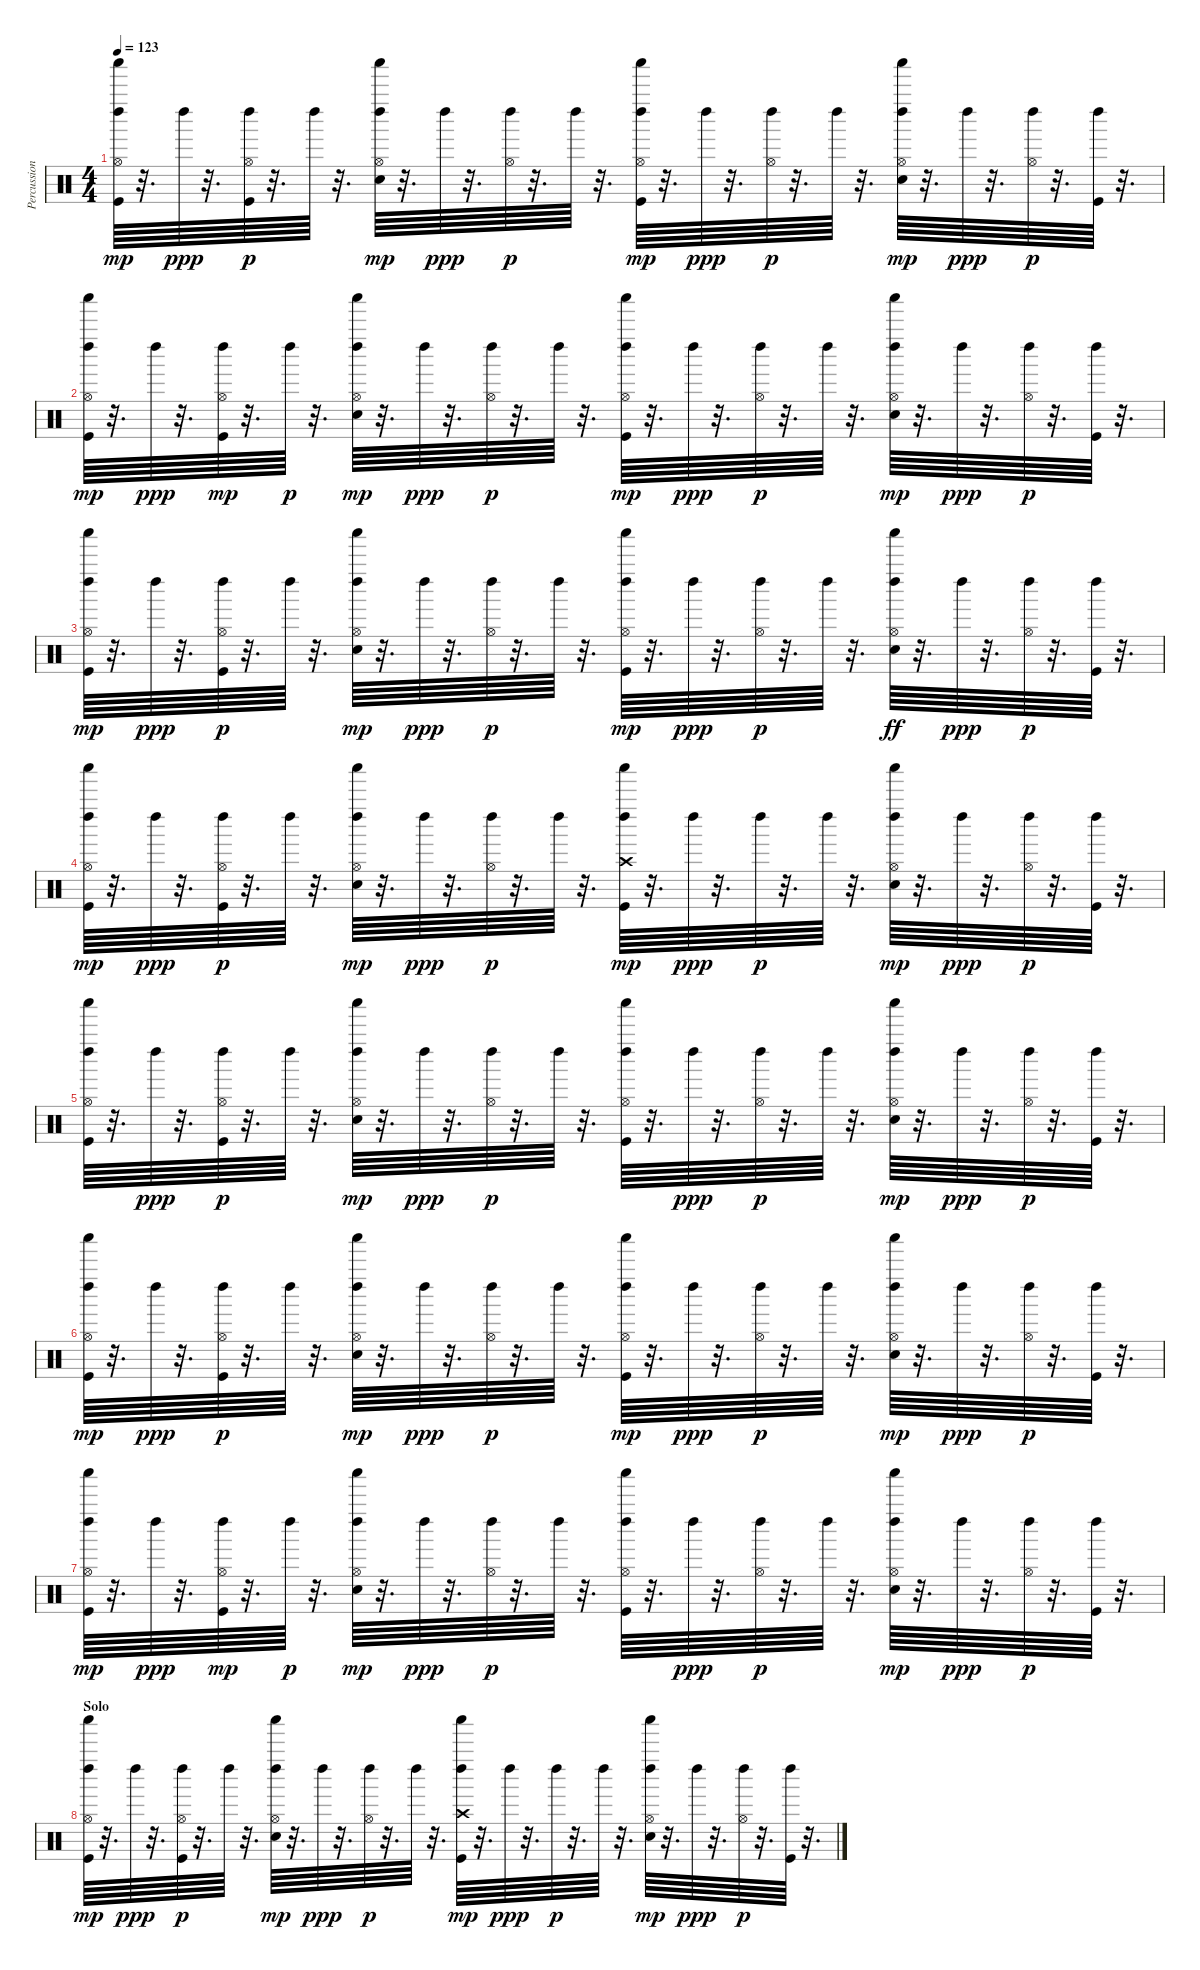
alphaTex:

\track ("Percussion" "Percussion") {instrument percussion}
\staff {score}
\articulation defaults
\ts (4 4)
\tempo 123
\clef neutral
\ks c
("Kick (hit)" "Hi-Hat (open)" "Left Maraca (hit)" "Shaker (hit)").64{dy mp} r.32{d} "Left Maraca (hit)".64{dy ppp} r.32{d} ("Kick (hit)" "Hi-Hat (open)" "Left Maraca (hit)").64{dy p} r.32{d} "Left Maraca (hit)".64 r.32{d} ("Electric Snare (hit)" "Hi-Hat (open)" "Left Maraca (hit)" "Shaker (hit)").64{dy mp} r.32{d} "Left Maraca (hit)".64{dy ppp} r.32{d} ("Hi-Hat (open)" "Left Maraca (hit)").64{dy p} r.32{d} "Left Maraca (hit)".64 r.32{d} ("Kick (hit)" "Hi-Hat (open)" "Left Maraca (hit)" "Shaker (hit)").64{dy mp} r.32{d} "Left Maraca (hit)".64{dy ppp} r.32{d} ("Hi-Hat (open)" "Left Maraca (hit)").64{dy p} r.32{d} "Left Maraca (hit)".64 r.32{d} ("Electric Snare (hit)" "Hi-Hat (open)" "Left Maraca (hit)" "Shaker (hit)").64{dy mp} r.32{d} "Left Maraca (hit)".64{dy ppp} r.32{d} ("Hi-Hat (open)" "Left Maraca (hit)").64{dy p} r.32{d} ("Kick (hit)" "Left Maraca (hit)").64 r.32{d} |
("Hi-Hat (open)" "Kick (hit)" "Shaker (hit)" "Left Maraca (hit)").64{dy mp} r.32{d} "Left Maraca (hit)".64{dy ppp} r.32{d} ("Hi-Hat (open)" "Left Maraca (hit)" "Kick (hit)").64{dy mp} r.32{d} "Left Maraca (hit)".64{dy p} r.32{d} ("Electric Snare (hit)" "Hi-Hat (open)" "Left Maraca (hit)" "Shaker (hit)").64{dy mp} r.32{d} "Left Maraca (hit)".64{dy ppp} r.32{d} ("Hi-Hat (open)" "Left Maraca (hit)").64{dy p} r.32{d} "Left Maraca (hit)".64 r.32{d} ("Left Maraca (hit)" "Shaker (hit)" "Kick (hit)" "Hi-Hat (open)").64{dy mp} r.32{d} "Left Maraca (hit)".64{dy ppp} r.32{d} ("Hi-Hat (open)" "Left Maraca (hit)").64{dy p} r.32{d} "Left Maraca (hit)".64 r.32{d} ("Hi-Hat (open)" "Electric Snare (hit)" "Shaker (hit)" "Left Maraca (hit)").64{dy mp} r.32{d} "Left Maraca (hit)".64{dy ppp} r.32{d} ("Hi-Hat (open)" "Left Maraca (hit)").64{dy p} r.32{d} ("Kick (hit)" "Left Maraca (hit)").64 r.32{d} |
("Shaker (hit)" "Hi-Hat (open)" "Kick (hit)" "Left Maraca (hit)").64{dy mp} r.32{d} "Left Maraca (hit)".64{dy ppp} r.32{d} ("Kick (hit)" "Hi-Hat (open)" "Left Maraca (hit)").64{dy p} r.32{d} "Left Maraca (hit)".64 r.32{d} ("Hi-Hat (open)" "Electric Snare (hit)" "Shaker (hit)" "Left Maraca (hit)").64{dy mp} r.32{d} "Left Maraca (hit)".64{dy ppp} r.32{d} ("Hi-Hat (open)" "Left Maraca (hit)").64{dy p} r.32{d} "Left Maraca (hit)".64 r.32{d} ("Kick (hit)" "Hi-Hat (open)" "Left Maraca (hit)" "Shaker (hit)").64{dy mp} r.32{d} "Left Maraca (hit)".64{dy ppp} r.32{d} ("Hi-Hat (open)" "Left Maraca (hit)").64{dy p} r.32{d} "Left Maraca (hit)".64 r.32{d} ("Shaker (hit)" "Left Maraca (hit)" "Hi-Hat (open)" "Electric Snare (hit)").64{dy ff} r.32{d} "Left Maraca (hit)".64{dy ppp} r.32{d} ("Hi-Hat (open)" "Left Maraca (hit)").64{dy p} r.32{d} ("Kick (hit)" "Left Maraca (hit)").64 r.32{d} |
("Kick (hit)" "Hi-Hat (open)" "Left Maraca (hit)" "Shaker (hit)").64{dy mp} r.32{d} "Left Maraca (hit)".64{dy ppp} r.32{d} ("Left Maraca (hit)" "Kick (hit)" "Hi-Hat (open)").64{dy p} r.32{d} "Left Maraca (hit)".64 r.32{d} ("Electric Snare (hit)" "Hi-Hat (open)" "Left Maraca (hit)" "Shaker (hit)").64{dy mp} r.32{d} "Left Maraca (hit)".64{dy ppp} r.32{d} ("Hi-Hat (open)" "Left Maraca (hit)").64{dy p} r.32{d} "Left Maraca (hit)".64 r.32{d} ("Kick (hit)" "Crash high (hit)" "Left Maraca (hit)" "Shaker (hit)").64{dy mp} r.32{d} "Left Maraca (hit)".64{dy ppp} r.32{d} "Left Maraca (hit)".64{dy p} r.32{d} "Left Maraca (hit)".64 r.32{d} ("Hi-Hat (open)" "Electric Snare (hit)" "Shaker (hit)" "Left Maraca (hit)").64{dy mp} r.32{d} "Left Maraca (hit)".64{dy ppp} r.32{d} ("Hi-Hat (open)" "Left Maraca (hit)").64{dy p} r.32{d} ("Kick (hit)" "Left Maraca (hit)").64 r.32{d} |
("Left Maraca (hit)" "Shaker (hit)" "Kick (hit)" "Hi-Hat (open)").64 r.32{d} "Left Maraca (hit)".64{dy ppp} r.32{d} ("Kick (hit)" "Hi-Hat (open)" "Left Maraca (hit)").64{dy p} r.32{d} "Left Maraca (hit)".64 r.32{d} ("Hi-Hat (open)" "Electric Snare (hit)" "Shaker (hit)" "Left Maraca (hit)").64{dy mp} r.32{d} "Left Maraca (hit)".64{dy ppp} r.32{d} ("Hi-Hat (open)" "Left Maraca (hit)").64{dy p} r.32{d} "Left Maraca (hit)".64 r.32{d} ("Kick (hit)" "Left Maraca (hit)" "Shaker (hit)" "Hi-Hat (open)").64 r.32{d} "Left Maraca (hit)".64{dy ppp} r.32{d} ("Hi-Hat (open)" "Left Maraca (hit)").64{dy p} r.32{d} "Left Maraca (hit)".64 r.32{d} ("Electric Snare (hit)" "Hi-Hat (open)" "Left Maraca (hit)" "Shaker (hit)").64{dy mp} r.32{d} "Left Maraca (hit)".64{dy ppp} r.32{d} ("Hi-Hat (open)" "Left Maraca (hit)").64{dy p} r.32{d} ("Kick (hit)" "Left Maraca (hit)").64 r.32{d} |
("Kick (hit)" "Hi-Hat (open)" "Left Maraca (hit)" "Shaker (hit)").64{dy mp} r.32{d} "Left Maraca (hit)".64{dy ppp} r.32{d} ("Kick (hit)" "Hi-Hat (open)" "Left Maraca (hit)").64{dy p} r.32{d} "Left Maraca (hit)".64 r.32{d} ("Electric Snare (hit)" "Hi-Hat (open)" "Left Maraca (hit)" "Shaker (hit)").64{dy mp} r.32{d} "Left Maraca (hit)".64{dy ppp} r.32{d} ("Hi-Hat (open)" "Left Maraca (hit)").64{dy p} r.32{d} "Left Maraca (hit)".64 r.32{d} ("Kick (hit)" "Hi-Hat (open)" "Left Maraca (hit)" "Shaker (hit)").64{dy mp} r.32{d} "Left Maraca (hit)".64{dy ppp} r.32{d} ("Hi-Hat (open)" "Left Maraca (hit)").64{dy p} r.32{d} "Left Maraca (hit)".64 r.32{d} ("Electric Snare (hit)" "Hi-Hat (open)" "Left Maraca (hit)" "Shaker (hit)").64{dy mp} r.32{d} "Left Maraca (hit)".64{dy ppp} r.32{d} ("Hi-Hat (open)" "Left Maraca (hit)").64{dy p} r.32{d} ("Kick (hit)" "Left Maraca (hit)").64 r.32{d} |
("Hi-Hat (open)" "Left Maraca (hit)" "Kick (hit)" "Shaker (hit)").64{dy mp} r.32{d} "Left Maraca (hit)".64{dy ppp} r.32{d} ("Hi-Hat (open)" "Left Maraca (hit)" "Kick (hit)").64{dy mp} r.32{d} "Left Maraca (hit)".64{dy p} r.32{d} ("Electric Snare (hit)" "Hi-Hat (open)" "Left Maraca (hit)" "Shaker (hit)").64{dy mp} r.32{d} "Left Maraca (hit)".64{dy ppp} r.32{d} ("Hi-Hat (open)" "Left Maraca (hit)").64{dy p} r.32{d} "Left Maraca (hit)".64 r.32{d} ("Left Maraca (hit)" "Shaker (hit)" "Kick (hit)" "Hi-Hat (open)").64 r.32{d} "Left Maraca (hit)".64{dy ppp} r.32{d} ("Hi-Hat (open)" "Left Maraca (hit)").64{dy p} r.32{d} "Left Maraca (hit)".64 r.32{d} ("Electric Snare (hit)" "Hi-Hat (open)" "Left Maraca (hit)" "Shaker (hit)").64{dy mp} r.32{d} "Left Maraca (hit)".64{dy ppp} r.32{d} ("Hi-Hat (open)" "Left Maraca (hit)").64{dy p} r.32{d} ("Kick (hit)" "Left Maraca (hit)").64 r.32{d} |
\section ("" "Solo")
("Kick (hit)" "Hi-Hat (open)" "Left Maraca (hit)" "Shaker (hit)").64{dy mp} r.32{d} "Left Maraca (hit)".64{dy ppp} r.32{d} ("Kick (hit)" "Hi-Hat (open)" "Left Maraca (hit)").64{dy p} r.32{d} "Left Maraca (hit)".64 r.32{d} ("Shaker (hit)" "Hi-Hat (open)" "Electric Snare (hit)" "Left Maraca (hit)").64{dy mp} r.32{d} "Left Maraca (hit)".64{dy ppp} r.32{d} ("Hi-Hat (open)" "Left Maraca (hit)").64{dy p} r.32{d} "Left Maraca (hit)".64 r.32{d} ("Kick (hit)" "Crash high (hit)" "Left Maraca (hit)" "Shaker (hit)").64{dy mp} r.32{d} "Left Maraca (hit)".64{dy ppp} r.32{d} "Left Maraca (hit)".64{dy p} r.32{d} "Left Maraca (hit)".64 r.32{d} ("Electric Snare (hit)" "Hi-Hat (open)" "Left Maraca (hit)" "Shaker (hit)").64{dy mp} r.32{d} "Left Maraca (hit)".64{dy ppp} r.32{d} ("Hi-Hat (open)" "Left Maraca (hit)").64{dy p} r.32{d} ("Kick (hit)" "Left Maraca (hit)").64 r.32{d}
